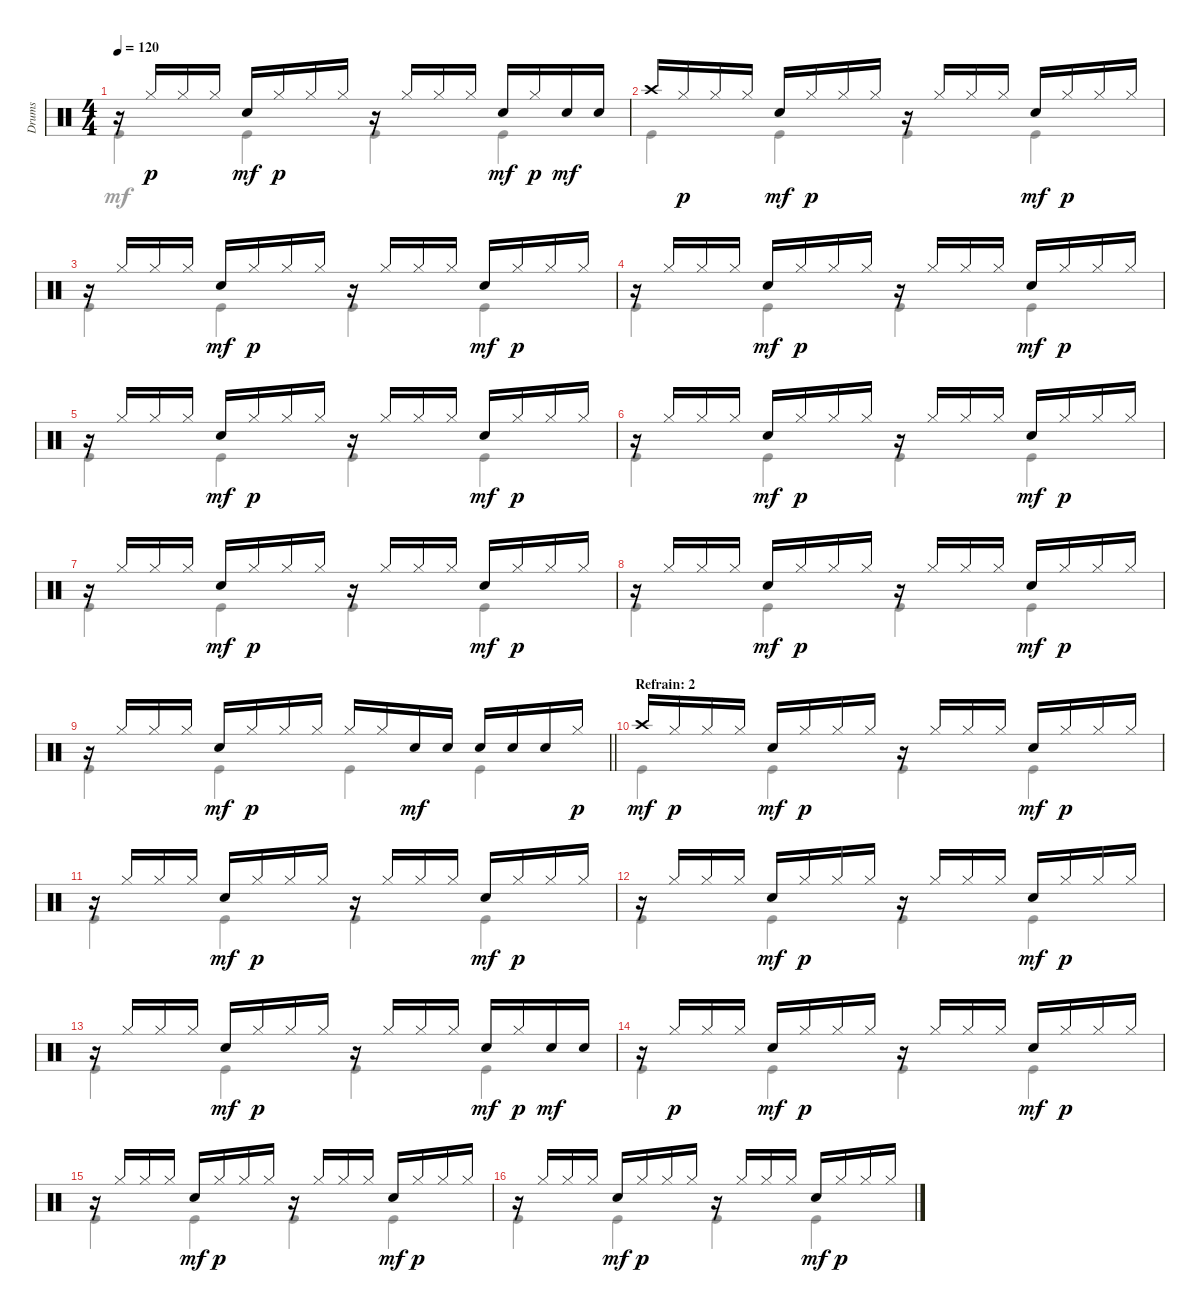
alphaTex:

\track ("Drums" "Drums") {instrument percussion}
\staff {score}
\articulation defaults
\voice
\ts (4 4)
\tempo 120
\clef neutral
\ks c
r.16{dy p} "Hi-Hat (closed)".16 "Hi-Hat (closed)".16 "Hi-Hat (closed)".16 "Snare (hit) 2".16{dy mf} "Hi-Hat (closed)".16{dy p} "Hi-Hat (closed)".16 "Hi-Hat (closed)".16 r.16 "Hi-Hat (closed)".16 "Hi-Hat (closed)".16 "Hi-Hat (closed)".16 "Snare (hit) 2".16{dy mf} "Hi-Hat (closed)".16{dy p} "Snare (hit) 2".16{dy mf} "Snare (hit) 2".16 |
"Crash high (hit)".16 "Hi-Hat (closed)".16{dy p} "Hi-Hat (closed)".16 "Hi-Hat (closed)".16 "Snare (hit) 2".16{dy mf} "Hi-Hat (closed)".16{dy p} "Hi-Hat (closed)".16 "Hi-Hat (closed)".16 r.16 "Hi-Hat (closed)".16 "Hi-Hat (closed)".16 "Hi-Hat (closed)".16 "Snare (hit) 2".16{dy mf} "Hi-Hat (closed)".16{dy p} "Hi-Hat (closed)".16 "Hi-Hat (closed)".16 |
r.16 "Hi-Hat (closed)".16 "Hi-Hat (closed)".16 "Hi-Hat (closed)".16 "Snare (hit) 2".16{dy mf} "Hi-Hat (closed)".16{dy p} "Hi-Hat (closed)".16 "Hi-Hat (closed)".16 r.16 "Hi-Hat (closed)".16 "Hi-Hat (closed)".16 "Hi-Hat (closed)".16 "Snare (hit) 2".16{dy mf} "Hi-Hat (closed)".16{dy p} "Hi-Hat (closed)".16 "Hi-Hat (closed)".16 |
r.16 "Hi-Hat (closed)".16 "Hi-Hat (closed)".16 "Hi-Hat (closed)".16 "Snare (hit) 2".16{dy mf} "Hi-Hat (closed)".16{dy p} "Hi-Hat (closed)".16 "Hi-Hat (closed)".16 r.16 "Hi-Hat (closed)".16 "Hi-Hat (closed)".16 "Hi-Hat (closed)".16 "Snare (hit) 2".16{dy mf} "Hi-Hat (closed)".16{dy p} "Hi-Hat (closed)".16 "Hi-Hat (closed)".16 |
r.16 "Hi-Hat (closed)".16 "Hi-Hat (closed)".16 "Hi-Hat (closed)".16 "Snare (hit) 2".16{dy mf} "Hi-Hat (closed)".16{dy p} "Hi-Hat (closed)".16 "Hi-Hat (closed)".16 r.16 "Hi-Hat (closed)".16 "Hi-Hat (closed)".16 "Hi-Hat (closed)".16 "Snare (hit) 2".16{dy mf} "Hi-Hat (closed)".16{dy p} "Hi-Hat (closed)".16 "Hi-Hat (closed)".16 |
r.16 "Hi-Hat (closed)".16 "Hi-Hat (closed)".16 "Hi-Hat (closed)".16 "Snare (hit) 2".16{dy mf} "Hi-Hat (closed)".16{dy p} "Hi-Hat (closed)".16 "Hi-Hat (closed)".16 r.16 "Hi-Hat (closed)".16 "Hi-Hat (closed)".16 "Hi-Hat (closed)".16 "Snare (hit) 2".16{dy mf} "Hi-Hat (closed)".16{dy p} "Hi-Hat (closed)".16 "Hi-Hat (closed)".16 |
r.16 "Hi-Hat (closed)".16 "Hi-Hat (closed)".16 "Hi-Hat (closed)".16 "Snare (hit) 2".16{dy mf} "Hi-Hat (closed)".16{dy p} "Hi-Hat (closed)".16 "Hi-Hat (closed)".16 r.16 "Hi-Hat (closed)".16 "Hi-Hat (closed)".16 "Hi-Hat (closed)".16 "Snare (hit) 2".16{dy mf} "Hi-Hat (closed)".16{dy p} "Hi-Hat (closed)".16 "Hi-Hat (closed)".16 |
r.16 "Hi-Hat (closed)".16 "Hi-Hat (closed)".16 "Hi-Hat (closed)".16 "Snare (hit) 2".16{dy mf} "Hi-Hat (closed)".16{dy p} "Hi-Hat (closed)".16 "Hi-Hat (closed)".16 r.16 "Hi-Hat (closed)".16 "Hi-Hat (closed)".16 "Hi-Hat (closed)".16 "Snare (hit) 2".16{dy mf} "Hi-Hat (closed)".16{dy p} "Hi-Hat (closed)".16 "Hi-Hat (closed)".16 |
\barLineRight lightlight
r.16 "Hi-Hat (closed)".16 "Hi-Hat (closed)".16 "Hi-Hat (closed)".16 "Snare (hit) 2".16{dy mf} "Hi-Hat (closed)".16{dy p} "Hi-Hat (closed)".16 "Hi-Hat (closed)".16 "Hi-Hat (closed)".16 "Hi-Hat (closed)".16 "Snare (hit) 2".16{dy mf} "Snare (hit) 2".16 "Snare (hit) 2".16 "Snare (hit) 2".16 "Snare (hit) 2".16 "Hi-Hat (closed)".16{dy p} |
\section ("" "Refrain: 2")
"Crash high (hit)".16{dy mf} "Hi-Hat (closed)".16{dy p} "Hi-Hat (closed)".16 "Hi-Hat (closed)".16 "Snare (hit) 2".16{dy mf} "Hi-Hat (closed)".16{dy p} "Hi-Hat (closed)".16 "Hi-Hat (closed)".16 r.16 "Hi-Hat (closed)".16 "Hi-Hat (closed)".16 "Hi-Hat (closed)".16 "Snare (hit) 2".16{dy mf} "Hi-Hat (closed)".16{dy p} "Hi-Hat (closed)".16 "Hi-Hat (closed)".16 |
r.16 "Hi-Hat (closed)".16 "Hi-Hat (closed)".16 "Hi-Hat (closed)".16 "Snare (hit) 2".16{dy mf} "Hi-Hat (closed)".16{dy p} "Hi-Hat (closed)".16 "Hi-Hat (closed)".16 r.16 "Hi-Hat (closed)".16 "Hi-Hat (closed)".16 "Hi-Hat (closed)".16 "Snare (hit) 2".16{dy mf} "Hi-Hat (closed)".16{dy p} "Hi-Hat (closed)".16 "Hi-Hat (closed)".16 |
r.16 "Hi-Hat (closed)".16 "Hi-Hat (closed)".16 "Hi-Hat (closed)".16 "Snare (hit) 2".16{dy mf} "Hi-Hat (closed)".16{dy p} "Hi-Hat (closed)".16 "Hi-Hat (closed)".16 r.16 "Hi-Hat (closed)".16 "Hi-Hat (closed)".16 "Hi-Hat (closed)".16 "Snare (hit) 2".16{dy mf} "Hi-Hat (closed)".16{dy p} "Hi-Hat (closed)".16 "Hi-Hat (closed)".16 |
r.16 "Hi-Hat (closed)".16 "Hi-Hat (closed)".16 "Hi-Hat (closed)".16 "Snare (hit) 2".16{dy mf} "Hi-Hat (closed)".16{dy p} "Hi-Hat (closed)".16 "Hi-Hat (closed)".16 r.16 "Hi-Hat (closed)".16 "Hi-Hat (closed)".16 "Hi-Hat (closed)".16 "Snare (hit) 2".16{dy mf} "Hi-Hat (closed)".16{dy p} "Snare (hit) 2".16{dy mf} "Snare (hit) 2".16 |
r.16 "Hi-Hat (closed)".16{dy p} "Hi-Hat (closed)".16 "Hi-Hat (closed)".16 "Snare (hit) 2".16{dy mf} "Hi-Hat (closed)".16{dy p} "Hi-Hat (closed)".16 "Hi-Hat (closed)".16 r.16 "Hi-Hat (closed)".16 "Hi-Hat (closed)".16 "Hi-Hat (closed)".16 "Snare (hit) 2".16{dy mf} "Hi-Hat (closed)".16{dy p} "Hi-Hat (closed)".16 "Hi-Hat (closed)".16 |
r.16 "Hi-Hat (closed)".16 "Hi-Hat (closed)".16 "Hi-Hat (closed)".16 "Snare (hit) 2".16{dy mf} "Hi-Hat (closed)".16{dy p} "Hi-Hat (closed)".16 "Hi-Hat (closed)".16 r.16 "Hi-Hat (closed)".16 "Hi-Hat (closed)".16 "Hi-Hat (closed)".16 "Snare (hit) 2".16{dy mf} "Hi-Hat (closed)".16{dy p} "Hi-Hat (closed)".16 "Hi-Hat (closed)".16 |
r.16 "Hi-Hat (closed)".16 "Hi-Hat (closed)".16 "Hi-Hat (closed)".16 "Snare (hit) 2".16{dy mf} "Hi-Hat (closed)".16{dy p} "Hi-Hat (closed)".16 "Hi-Hat (closed)".16 r.16 "Hi-Hat (closed)".16 "Hi-Hat (closed)".16 "Hi-Hat (closed)".16 "Snare (hit) 2".16{dy mf} "Hi-Hat (closed)".16{dy p} "Hi-Hat (closed)".16 "Hi-Hat (closed)".16
\voice
\clef neutral
\ottava regular
\simile none
\ks c "Kick (hit)".4{dy mf} "Kick (hit)".4 "Kick (hit)".4 "Kick (hit)".4
|
"Kick (hit)".4 "Kick (hit)".4 "Kick (hit)".4 "Kick (hit)".4 |
"Kick (hit)".4 "Kick (hit)".4 "Kick (hit)".4 "Kick (hit)".4 |
"Kick (hit)".4 "Kick (hit)".4 "Kick (hit)".4 "Kick (hit)".4 |
"Kick (hit)".4 "Kick (hit)".4 "Kick (hit)".4 "Kick (hit)".4 |
"Kick (hit)".4 "Kick (hit)".4 "Kick (hit)".4 "Kick (hit)".4 |
"Kick (hit)".4 "Kick (hit)".4 "Kick (hit)".4 "Kick (hit)".4 |
"Kick (hit)".4 "Kick (hit)".4 "Kick (hit)".4 "Kick (hit)".4 |
\barLineRight lightlight "Kick (hit)".4 "Kick (hit)".4 "Kick (hit)".4 "Kick (hit)".4
|
"Kick (hit)".4 "Kick (hit)".4 "Kick (hit)".4 "Kick (hit)".4 |
"Kick (hit)".4 "Kick (hit)".4 "Kick (hit)".4 "Kick (hit)".4 |
"Kick (hit)".4 "Kick (hit)".4 "Kick (hit)".4 "Kick (hit)".4 |
"Kick (hit)".4 "Kick (hit)".4 "Kick (hit)".4 "Kick (hit)".4 |
"Kick (hit)".4 "Kick (hit)".4 "Kick (hit)".4 "Kick (hit)".4 |
"Kick (hit)".4 "Kick (hit)".4 "Kick (hit)".4 "Kick (hit)".4 |
"Kick (hit)".4 "Kick (hit)".4 "Kick (hit)".4 "Kick (hit)".4
